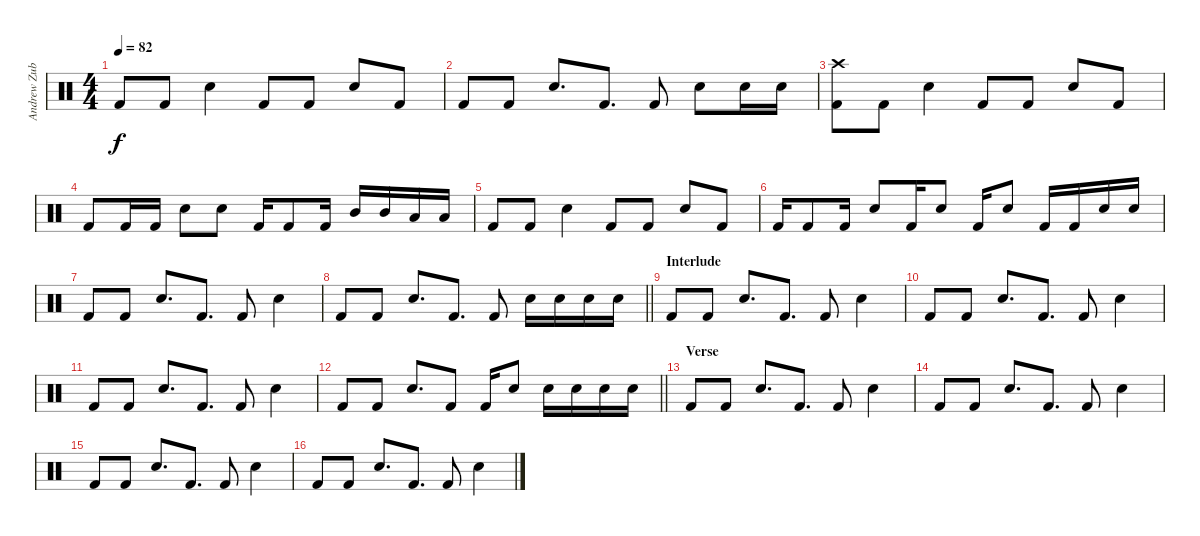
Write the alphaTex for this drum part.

\track ("Andrew Zubiszewski (Drums)" "Andrew Zub") {instrument percussion}
\staff {score}
\articulation defaults
\ts (4 4)
\tempo 82
\clef neutral
\ks c "Kick (hit) 2".8{dy f} "Kick (hit) 2".8 "Electric Snare (hit)".4 "Kick (hit) 2".8 "Kick (hit) 2".8 "Electric Snare (hit)".8 "Kick (hit) 2".8
|
"Kick (hit) 2".8 "Kick (hit) 2".8 "Electric Snare (hit)".8{d} "Kick (hit) 2".8{d} "Kick (hit) 2".8 "Electric Snare (hit)".8 "Electric Snare (hit)".16 "Electric Snare (hit)".16 |
("Crash high (hit)" "Kick (hit) 2").8 "Kick (hit) 2".8 "Electric Snare (hit)".4 "Kick (hit) 2".8 "Kick (hit) 2".8 "Electric Snare (hit)".8 "Kick (hit) 2".8 |
"Kick (hit) 2".8 "Kick (hit) 2".16 "Kick (hit) 2".16 "Electric Snare (hit)".8 "Electric Snare (hit)".8 "Kick (hit) 2".16 "Kick (hit) 2".8 "Kick (hit) 2".16 "Mid Tom (hit)".16 "Mid Tom (hit)".16 "Low Tom (hit)".16 "Low Tom (hit)".16 |
"Kick (hit) 2".8 "Kick (hit) 2".8 "Electric Snare (hit)".4 "Kick (hit) 2".8 "Kick (hit) 2".8 "Electric Snare (hit)".8 "Kick (hit) 2".8 |
"Kick (hit) 2".16 "Kick (hit) 2".8 "Kick (hit) 2".16 "Electric Snare (hit)".8 "Kick (hit) 2".16 "Electric Snare (hit)".8 "Kick (hit) 2".16 "Electric Snare (hit)".8 "Kick (hit) 2".16 "Kick (hit) 2".16 "Electric Snare (hit)".16 "Electric Snare (hit)".16 |
"Kick (hit) 2".8 "Kick (hit) 2".8 "Electric Snare (hit)".8{d} "Kick (hit) 2".8{d} "Kick (hit) 2".8 "Electric Snare (hit)".4 |
\barLineRight lightlight "Kick (hit) 2".8 "Kick (hit) 2".8 "Electric Snare (hit)".8{d} "Kick (hit) 2".8{d} "Kick (hit) 2".8 "Electric Snare (hit)".16 "Electric Snare (hit)".16 "Electric Snare (hit)".16 "Electric Snare (hit)".16
|
\section ("" "Interlude")
"Kick (hit) 2".8 "Kick (hit) 2".8 "Electric Snare (hit)".8{d} "Kick (hit) 2".8{d} "Kick (hit) 2".8 "Electric Snare (hit)".4 |
"Kick (hit) 2".8 "Kick (hit) 2".8 "Electric Snare (hit)".8{d} "Kick (hit) 2".8{d} "Kick (hit) 2".8 "Electric Snare (hit)".4 |
"Kick (hit) 2".8 "Kick (hit) 2".8 "Electric Snare (hit)".8{d} "Kick (hit) 2".8{d} "Kick (hit) 2".8 "Electric Snare (hit)".4 |
\barLineRight lightlight "Kick (hit) 2".8 "Kick (hit) 2".8 "Electric Snare (hit)".8{d} "Kick (hit) 2".8 "Kick (hit) 2".16 "Electric Snare (hit)".8 "Electric Snare (hit)".16 "Electric Snare (hit)".16 "Electric Snare (hit)".16 "Electric Snare (hit)".16
|
\section ("" "Verse")
"Kick (hit) 2".8 "Kick (hit) 2".8 "Electric Snare (hit)".8{d} "Kick (hit) 2".8{d} "Kick (hit) 2".8 "Electric Snare (hit)".4 |
"Kick (hit) 2".8 "Kick (hit) 2".8 "Electric Snare (hit)".8{d} "Kick (hit) 2".8{d} "Kick (hit) 2".8 "Electric Snare (hit)".4 |
"Kick (hit) 2".8 "Kick (hit) 2".8 "Electric Snare (hit)".8{d} "Kick (hit) 2".8{d} "Kick (hit) 2".8 "Electric Snare (hit)".4 |
"Kick (hit) 2".8 "Kick (hit) 2".8 "Electric Snare (hit)".8{d} "Kick (hit) 2".8{d} "Kick (hit) 2".8 "Electric Snare (hit)".4
